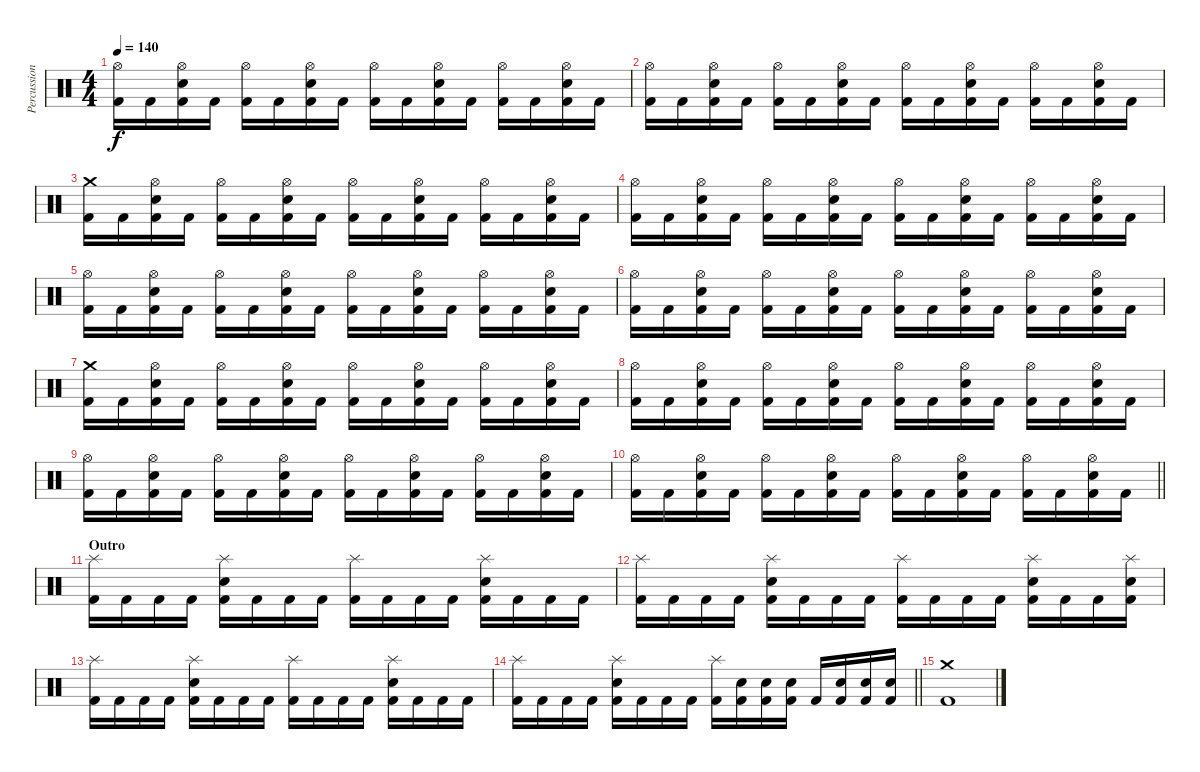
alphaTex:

\track ("Percussion" "Percussion") {instrument percussion}
\staff {score}
\articulation defaults
\ts (4 4)
\tempo 140
\clef neutral
\ks c
("Kick (hit) 2" "Hi-Hat (open)").16{dy f} "Kick (hit) 2".16 ("Kick (hit) 2" "Electric Snare (hit)" "Hi-Hat (open)").16 "Kick (hit) 2".16 ("Kick (hit) 2" "Hi-Hat (open)").16 "Kick (hit) 2".16 ("Kick (hit) 2" "Electric Snare (hit)" "Hi-Hat (open)").16 "Kick (hit) 2".16 ("Kick (hit) 2" "Hi-Hat (open)").16 "Kick (hit) 2".16 ("Kick (hit) 2" "Electric Snare (hit)" "Hi-Hat (open)").16 "Kick (hit) 2".16 ("Kick (hit) 2" "Hi-Hat (open)").16 "Kick (hit) 2".16 ("Kick (hit) 2" "Electric Snare (hit)" "Hi-Hat (open)").16 "Kick (hit) 2".16 |
("Kick (hit) 2" "Hi-Hat (open)").16 "Kick (hit) 2".16 ("Kick (hit) 2" "Electric Snare (hit)" "Hi-Hat (open)").16 "Kick (hit) 2".16 ("Kick (hit) 2" "Hi-Hat (open)").16 "Kick (hit) 2".16 ("Kick (hit) 2" "Electric Snare (hit)" "Hi-Hat (open)").16 "Kick (hit) 2".16 ("Kick (hit) 2" "Hi-Hat (open)").16 "Kick (hit) 2".16 ("Kick (hit) 2" "Electric Snare (hit)" "Hi-Hat (open)").16 "Kick (hit) 2".16 ("Kick (hit) 2" "Hi-Hat (open)").16 "Kick (hit) 2".16 ("Kick (hit) 2" "Electric Snare (hit)" "Hi-Hat (open)").16 "Kick (hit) 2".16 |
("Kick (hit) 2" "Crash medium (hit)").16 "Kick (hit) 2".16 ("Kick (hit) 2" "Electric Snare (hit)" "Hi-Hat (open)").16 "Kick (hit) 2".16 ("Kick (hit) 2" "Hi-Hat (open)").16 "Kick (hit) 2".16 ("Kick (hit) 2" "Electric Snare (hit)" "Hi-Hat (open)").16 "Kick (hit) 2".16 ("Kick (hit) 2" "Hi-Hat (open)").16 "Kick (hit) 2".16 ("Kick (hit) 2" "Electric Snare (hit)" "Hi-Hat (open)").16 "Kick (hit) 2".16 ("Kick (hit) 2" "Hi-Hat (open)").16 "Kick (hit) 2".16 ("Kick (hit) 2" "Electric Snare (hit)" "Hi-Hat (open)").16 "Kick (hit) 2".16 |
("Kick (hit) 2" "Hi-Hat (open)").16 "Kick (hit) 2".16 ("Kick (hit) 2" "Electric Snare (hit)" "Hi-Hat (open)").16 "Kick (hit) 2".16 ("Kick (hit) 2" "Hi-Hat (open)").16 "Kick (hit) 2".16 ("Kick (hit) 2" "Electric Snare (hit)" "Hi-Hat (open)").16 "Kick (hit) 2".16 ("Kick (hit) 2" "Hi-Hat (open)").16 "Kick (hit) 2".16 ("Kick (hit) 2" "Electric Snare (hit)" "Hi-Hat (open)").16 "Kick (hit) 2".16 ("Kick (hit) 2" "Hi-Hat (open)").16 "Kick (hit) 2".16 ("Kick (hit) 2" "Electric Snare (hit)" "Hi-Hat (open)").16 "Kick (hit) 2".16 |
("Kick (hit) 2" "Hi-Hat (open)").16 "Kick (hit) 2".16 ("Kick (hit) 2" "Electric Snare (hit)" "Hi-Hat (open)").16 "Kick (hit) 2".16 ("Kick (hit) 2" "Hi-Hat (open)").16 "Kick (hit) 2".16 ("Kick (hit) 2" "Electric Snare (hit)" "Hi-Hat (open)").16 "Kick (hit) 2".16 ("Kick (hit) 2" "Hi-Hat (open)").16 "Kick (hit) 2".16 ("Kick (hit) 2" "Electric Snare (hit)" "Hi-Hat (open)").16 "Kick (hit) 2".16 ("Kick (hit) 2" "Hi-Hat (open)").16 "Kick (hit) 2".16 ("Kick (hit) 2" "Electric Snare (hit)" "Hi-Hat (open)").16 "Kick (hit) 2".16 |
("Kick (hit) 2" "Hi-Hat (open)").16 "Kick (hit) 2".16 ("Kick (hit) 2" "Electric Snare (hit)" "Hi-Hat (open)").16 "Kick (hit) 2".16 ("Kick (hit) 2" "Hi-Hat (open)").16 "Kick (hit) 2".16 ("Kick (hit) 2" "Electric Snare (hit)" "Hi-Hat (open)").16 "Kick (hit) 2".16 ("Kick (hit) 2" "Hi-Hat (open)").16 "Kick (hit) 2".16 ("Kick (hit) 2" "Electric Snare (hit)" "Hi-Hat (open)").16 "Kick (hit) 2".16 ("Kick (hit) 2" "Hi-Hat (open)").16 "Kick (hit) 2".16 ("Kick (hit) 2" "Electric Snare (hit)" "Hi-Hat (open)").16 "Kick (hit) 2".16 |
("Kick (hit) 2" "Crash medium (hit)").16 "Kick (hit) 2".16 ("Kick (hit) 2" "Electric Snare (hit)" "Hi-Hat (open)").16 "Kick (hit) 2".16 ("Kick (hit) 2" "Hi-Hat (open)").16 "Kick (hit) 2".16 ("Kick (hit) 2" "Electric Snare (hit)" "Hi-Hat (open)").16 "Kick (hit) 2".16 ("Kick (hit) 2" "Hi-Hat (open)").16 "Kick (hit) 2".16 ("Kick (hit) 2" "Electric Snare (hit)" "Hi-Hat (open)").16 "Kick (hit) 2".16 ("Kick (hit) 2" "Hi-Hat (open)").16 "Kick (hit) 2".16 ("Kick (hit) 2" "Electric Snare (hit)" "Hi-Hat (open)").16 "Kick (hit) 2".16 |
("Kick (hit) 2" "Hi-Hat (open)").16 "Kick (hit) 2".16 ("Kick (hit) 2" "Electric Snare (hit)" "Hi-Hat (open)").16 "Kick (hit) 2".16 ("Kick (hit) 2" "Hi-Hat (open)").16 "Kick (hit) 2".16 ("Kick (hit) 2" "Electric Snare (hit)" "Hi-Hat (open)").16 "Kick (hit) 2".16 ("Kick (hit) 2" "Hi-Hat (open)").16 "Kick (hit) 2".16 ("Kick (hit) 2" "Electric Snare (hit)" "Hi-Hat (open)").16 "Kick (hit) 2".16 ("Kick (hit) 2" "Hi-Hat (open)").16 "Kick (hit) 2".16 ("Kick (hit) 2" "Electric Snare (hit)" "Hi-Hat (open)").16 "Kick (hit) 2".16 |
("Kick (hit) 2" "Hi-Hat (open)").16 "Kick (hit) 2".16 ("Kick (hit) 2" "Electric Snare (hit)" "Hi-Hat (open)").16 "Kick (hit) 2".16 ("Kick (hit) 2" "Hi-Hat (open)").16 "Kick (hit) 2".16 ("Kick (hit) 2" "Electric Snare (hit)" "Hi-Hat (open)").16 "Kick (hit) 2".16 ("Kick (hit) 2" "Hi-Hat (open)").16 "Kick (hit) 2".16 ("Kick (hit) 2" "Electric Snare (hit)" "Hi-Hat (open)").16 "Kick (hit) 2".16 ("Kick (hit) 2" "Hi-Hat (open)").16 "Kick (hit) 2".16 ("Kick (hit) 2" "Electric Snare (hit)" "Hi-Hat (open)").16 "Kick (hit) 2".16 |
\barLineRight lightlight
("Kick (hit) 2" "Hi-Hat (open)").16 "Kick (hit) 2".16 ("Kick (hit) 2" "Electric Snare (hit)" "Hi-Hat (open)").16 "Kick (hit) 2".16 ("Kick (hit) 2" "Hi-Hat (open)").16 "Kick (hit) 2".16 ("Kick (hit) 2" "Electric Snare (hit)" "Hi-Hat (open)").16 "Kick (hit) 2".16 ("Kick (hit) 2" "Hi-Hat (open)").16 "Kick (hit) 2".16 ("Kick (hit) 2" "Electric Snare (hit)" "Hi-Hat (open)").16 "Kick (hit) 2".16 ("Kick (hit) 2" "Hi-Hat (open)").16 "Kick (hit) 2".16 ("Kick (hit) 2" "Electric Snare (hit)" "Hi-Hat (open)").16 "Kick (hit) 2".16 |
\section ("" "Outro")
("Kick (hit) 2" "Splash (hit)").16 "Kick (hit) 2".16 "Kick (hit) 2".16 "Kick (hit) 2".16 ("Kick (hit) 2" "Electric Snare (hit)" "Splash (hit)").16 "Kick (hit) 2".16 "Kick (hit) 2".16 "Kick (hit) 2".16 ("Kick (hit) 2" "Splash (hit)").16 "Kick (hit) 2".16 "Kick (hit) 2".16 "Kick (hit) 2".16 ("Kick (hit) 2" "Electric Snare (hit)" "Splash (hit)").16 "Kick (hit) 2".16 "Kick (hit) 2".16 "Kick (hit) 2".16 |
("Kick (hit) 2" "Splash (hit)").16 "Kick (hit) 2".16 "Kick (hit) 2".16 "Kick (hit) 2".16 ("Kick (hit) 2" "Electric Snare (hit)" "Splash (hit)").16 "Kick (hit) 2".16 "Kick (hit) 2".16 "Kick (hit) 2".16 ("Kick (hit) 2" "Splash (hit)").16 "Kick (hit) 2".16 "Kick (hit) 2".16 "Kick (hit) 2".16 ("Kick (hit) 2" "Electric Snare (hit)" "Splash (hit)").16 "Kick (hit) 2".16 "Kick (hit) 2".16 ("Kick (hit) 2" "Electric Snare (hit)" "Splash (hit)").16 |
("Kick (hit) 2" "Splash (hit)").16 "Kick (hit) 2".16 "Kick (hit) 2".16 "Kick (hit) 2".16 ("Kick (hit) 2" "Electric Snare (hit)" "Splash (hit)").16 "Kick (hit) 2".16 "Kick (hit) 2".16 "Kick (hit) 2".16 ("Kick (hit) 2" "Splash (hit)").16 "Kick (hit) 2".16 "Kick (hit) 2".16 "Kick (hit) 2".16 ("Kick (hit) 2" "Electric Snare (hit)" "Splash (hit)").16 "Kick (hit) 2".16 "Kick (hit) 2".16 "Kick (hit) 2".16 |
\barLineRight lightlight
("Kick (hit) 2" "Splash (hit)").16 "Kick (hit) 2".16 "Kick (hit) 2".16 "Kick (hit) 2".16 ("Kick (hit) 2" "Electric Snare (hit)" "Splash (hit)").16 "Kick (hit) 2".16 "Kick (hit) 2".16 "Kick (hit) 2".16 ("Kick (hit) 2" "Splash (hit)").16 ("Kick (hit) 2" "Electric Snare (hit)").16 ("Kick (hit) 2" "Electric Snare (hit)").16 ("Kick (hit) 2" "Electric Snare (hit)").16 "Kick (hit) 2".16 ("Kick (hit) 2" "Electric Snare (hit)").16 ("Kick (hit) 2" "Electric Snare (hit)").16 ("Kick (hit) 2" "Electric Snare (hit)").16 |
("Kick (hit) 2" "Crash medium (hit)").1
